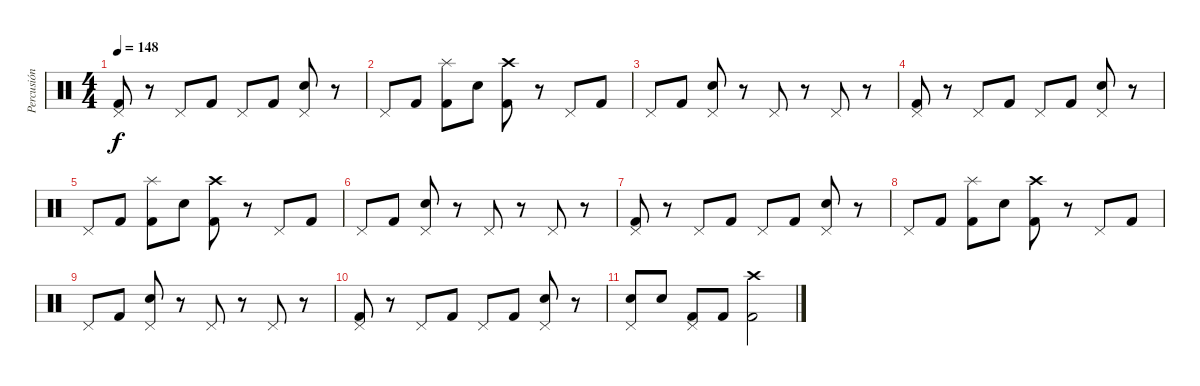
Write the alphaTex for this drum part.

\track ("Percusión" "Percusión") {instrument percussion}
\staff {score}
\articulation defaults
\ts (4 4)
\tempo 148
\clef neutral
\ks c
("Pedal Hi-Hat (hit)" "Kick (hit) 2").8{dy f} r.8 "Pedal Hi-Hat (hit)".8 "Kick (hit) 2".8 "Pedal Hi-Hat (hit)".8 "Kick (hit) 2".8 ("Pedal Hi-Hat (hit)" "Snare (hit) 2").8 r.8 |
"Pedal Hi-Hat (hit)".8 "Kick (hit) 2".8 ("Splash (hit)" "Kick (hit) 2").8 "Snare (hit) 2".8 ("Crash high (hit)" "Kick (hit) 2").8 r.8 "Pedal Hi-Hat (hit)".8 "Kick (hit) 2".8 |
"Pedal Hi-Hat (hit)".8 "Kick (hit) 2".8 ("Pedal Hi-Hat (hit)" "Snare (hit) 2").8 r.8 "Pedal Hi-Hat (hit)".8 r.8 "Pedal Hi-Hat (hit)".8 r.8 |
("Pedal Hi-Hat (hit)" "Kick (hit) 2").8 r.8 "Pedal Hi-Hat (hit)".8 "Kick (hit) 2".8 "Pedal Hi-Hat (hit)".8 "Kick (hit) 2".8 ("Pedal Hi-Hat (hit)" "Snare (hit) 2").8 r.8 |
"Pedal Hi-Hat (hit)".8 "Kick (hit) 2".8 ("Splash (hit)" "Kick (hit) 2").8 "Snare (hit) 2".8 ("Crash high (hit)" "Kick (hit) 2").8 r.8 "Pedal Hi-Hat (hit)".8 "Kick (hit) 2".8 |
"Pedal Hi-Hat (hit)".8 "Kick (hit) 2".8 ("Pedal Hi-Hat (hit)" "Snare (hit) 2").8 r.8 "Pedal Hi-Hat (hit)".8 r.8 "Pedal Hi-Hat (hit)".8 r.8 |
("Pedal Hi-Hat (hit)" "Kick (hit) 2").8 r.8 "Pedal Hi-Hat (hit)".8 "Kick (hit) 2".8 "Pedal Hi-Hat (hit)".8 "Kick (hit) 2".8 ("Pedal Hi-Hat (hit)" "Snare (hit) 2").8 r.8 |
"Pedal Hi-Hat (hit)".8 "Kick (hit) 2".8 ("Splash (hit)" "Kick (hit) 2").8 "Snare (hit) 2".8 ("Crash high (hit)" "Kick (hit) 2").8 r.8 "Pedal Hi-Hat (hit)".8 "Kick (hit) 2".8 |
"Pedal Hi-Hat (hit)".8 "Kick (hit) 2".8 ("Pedal Hi-Hat (hit)" "Snare (hit) 2").8 r.8 "Pedal Hi-Hat (hit)".8 r.8 "Pedal Hi-Hat (hit)".8 r.8 |
("Pedal Hi-Hat (hit)" "Kick (hit) 2").8 r.8 "Pedal Hi-Hat (hit)".8 "Kick (hit) 2".8 "Pedal Hi-Hat (hit)".8 "Kick (hit) 2".8 ("Pedal Hi-Hat (hit)" "Snare (hit) 2").8 r.8 |
("Pedal Hi-Hat (hit)" "Snare (hit) 2").8 "Snare (hit) 2".8 ("Pedal Hi-Hat (hit)" "Kick (hit) 2").8 "Kick (hit) 2".8 ("Crash high (hit)" "Kick (hit) 2").2
